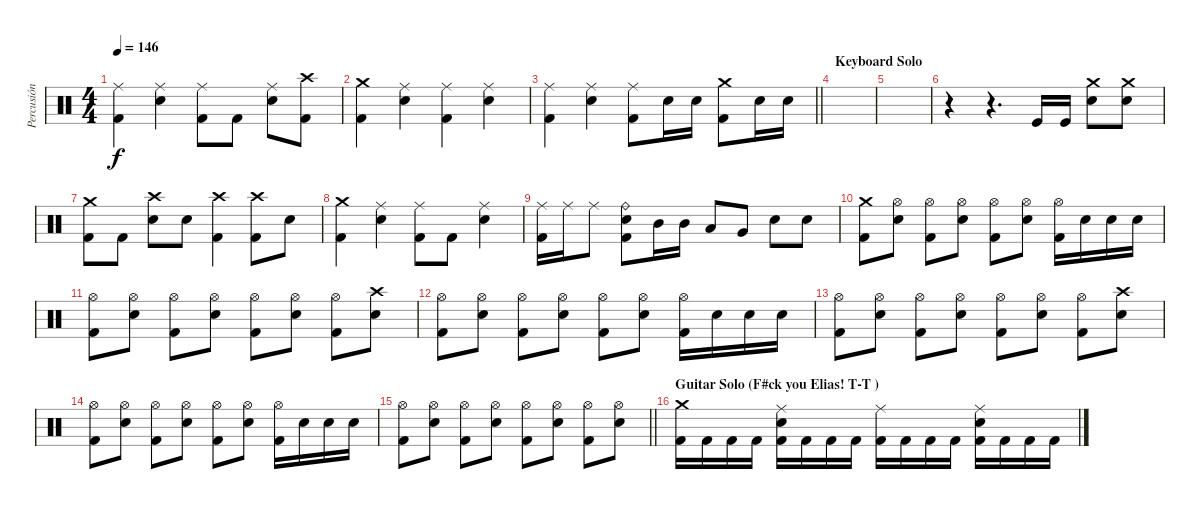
\track ("Percusión" "Percusión") {instrument percussion}
\staff {score}
\articulation defaults
\ts (4 4)
\tempo 146
\clef neutral
\ks c
("Ride (middle)" "Kick (hit) 2").4{dy f} ("Ride (middle)" "Snare (hit) 2").4 ("Ride (middle)" "Kick (hit) 2").8 "Kick (hit) 2".8 ("Ride (middle)" "Snare (hit) 2").8 ("Crash high (hit)" "Kick (hit) 2").8 |
("Crash medium (hit)" "Kick (hit) 2").4 ("Ride (middle)" "Snare (hit) 2").4 ("Ride (middle)" "Kick (hit) 2").4 ("Ride (middle)" "Snare (hit) 2").4 |
\barLineRight lightlight
("Ride (middle)" "Kick (hit) 2").4 ("Ride (middle)" "Snare (hit) 2").4 ("Ride (middle)" "Kick (hit) 2").8 "Snare (hit) 2".16 "Snare (hit) 2".16 ("Crash medium (hit)" "Kick (hit) 2").8 "Snare (hit) 2".16 "Snare (hit) 2".16 |
\section ("" "Keyboard Solo")
|
|
r.4 r.4{d} "Kick (hit)".16 "Kick (hit)".16 ("Crash medium (hit)" "Snare (hit) 2").8 ("Crash medium (hit)" "Snare (hit) 2").8 |
("Crash medium (hit)" "Kick (hit) 2").8 "Kick (hit) 2".8 ("Crash high (hit)" "Snare (hit) 2").8 "Snare (hit) 2".8 ("Crash high (hit)" "Kick (hit) 2").4 ("Crash high (hit)" "Kick (hit) 2").8 "Snare (hit) 2".8 |
("Crash medium (hit)" "Kick (hit) 2").4 ("Ride (middle)" "Snare (hit) 2").4 ("Ride (middle)" "Kick (hit) 2").8 "Kick (hit) 2".8 ("Ride (middle)" "Snare (hit) 2").4 |
("Ride (middle)" "Kick (hit) 2").16 "Ride (middle)".16 "Ride (middle)".8 ("Ride (bell)" "Snare (hit) 2" "Kick (hit) 2").8 "Mid Tom (hit)".16 "Mid Tom (hit)".16 "Low Tom (hit)".8 "Very Low Tom (hit)".8 "Snare (hit) 2".8 "Snare (hit) 2".8 |
("Crash medium (hit)" "Kick (hit) 2").8 ("Hi-Hat (open)" "Snare (hit) 2").8 ("Hi-Hat (open)" "Kick (hit) 2").8 ("Hi-Hat (open)" "Snare (hit) 2").8 ("Hi-Hat (open)" "Kick (hit) 2").8 ("Hi-Hat (open)" "Snare (hit) 2").8 ("Hi-Hat (open)" "Kick (hit) 2").16 "Snare (hit) 2".16 "Snare (hit) 2".16 "Snare (hit) 2".16 |
("Hi-Hat (open)" "Kick (hit) 2").8 ("Hi-Hat (open)" "Snare (hit) 2").8 ("Hi-Hat (open)" "Kick (hit) 2").8 ("Hi-Hat (open)" "Snare (hit) 2").8 ("Hi-Hat (open)" "Kick (hit) 2").8 ("Hi-Hat (open)" "Snare (hit) 2").8 ("Hi-Hat (open)" "Kick (hit) 2").8 ("Crash high (hit)" "Snare (hit) 2").8 |
("Hi-Hat (open)" "Kick (hit) 2").8 ("Hi-Hat (open)" "Snare (hit) 2").8 ("Hi-Hat (open)" "Kick (hit) 2").8 ("Hi-Hat (open)" "Snare (hit) 2").8 ("Hi-Hat (open)" "Kick (hit) 2").8 ("Hi-Hat (open)" "Snare (hit) 2").8 ("Hi-Hat (open)" "Kick (hit) 2").16 "Snare (hit) 2".16 "Snare (hit) 2".16 "Snare (hit) 2".16 |
("Hi-Hat (open)" "Kick (hit) 2").8 ("Hi-Hat (open)" "Snare (hit) 2").8 ("Hi-Hat (open)" "Kick (hit) 2").8 ("Hi-Hat (open)" "Snare (hit) 2").8 ("Hi-Hat (open)" "Kick (hit) 2").8 ("Hi-Hat (open)" "Snare (hit) 2").8 ("Hi-Hat (open)" "Kick (hit) 2").8 ("Crash high (hit)" "Snare (hit) 2").8 |
("Hi-Hat (open)" "Kick (hit) 2").8 ("Hi-Hat (open)" "Snare (hit) 2").8 ("Hi-Hat (open)" "Kick (hit) 2").8 ("Hi-Hat (open)" "Snare (hit) 2").8 ("Hi-Hat (open)" "Kick (hit) 2").8 ("Hi-Hat (open)" "Snare (hit) 2").8 ("Hi-Hat (open)" "Kick (hit) 2").16 "Snare (hit) 2".16 "Snare (hit) 2".16 "Snare (hit) 2".16 |
\barLineRight lightlight
("Hi-Hat (open)" "Kick (hit) 2").8 ("Hi-Hat (open)" "Snare (hit) 2").8 ("Hi-Hat (open)" "Kick (hit) 2").8 ("Hi-Hat (open)" "Snare (hit) 2").8 ("Hi-Hat (open)" "Kick (hit) 2").8 ("Hi-Hat (open)" "Snare (hit) 2").8 ("Hi-Hat (open)" "Kick (hit) 2").8 ("Hi-Hat (open)" "Snare (hit) 2").8 |
\section ("" "Guitar Solo (F#ck you Elias! T-T )")
("Crash medium (hit)" "Kick (hit) 2").16 "Kick (hit) 2".16 "Kick (hit) 2".16 "Kick (hit) 2".16 ("Ride (middle)" "Snare (hit) 2" "Kick (hit) 2").16 "Kick (hit) 2".16 "Kick (hit) 2".16 "Kick (hit) 2".16 ("Ride (middle)" "Kick (hit) 2").16 "Kick (hit) 2".16 "Kick (hit) 2".16 "Kick (hit) 2".16 ("Ride (middle)" "Snare (hit) 2" "Kick (hit) 2").16 "Kick (hit) 2".16 "Kick (hit) 2".16 "Kick (hit) 2".16
